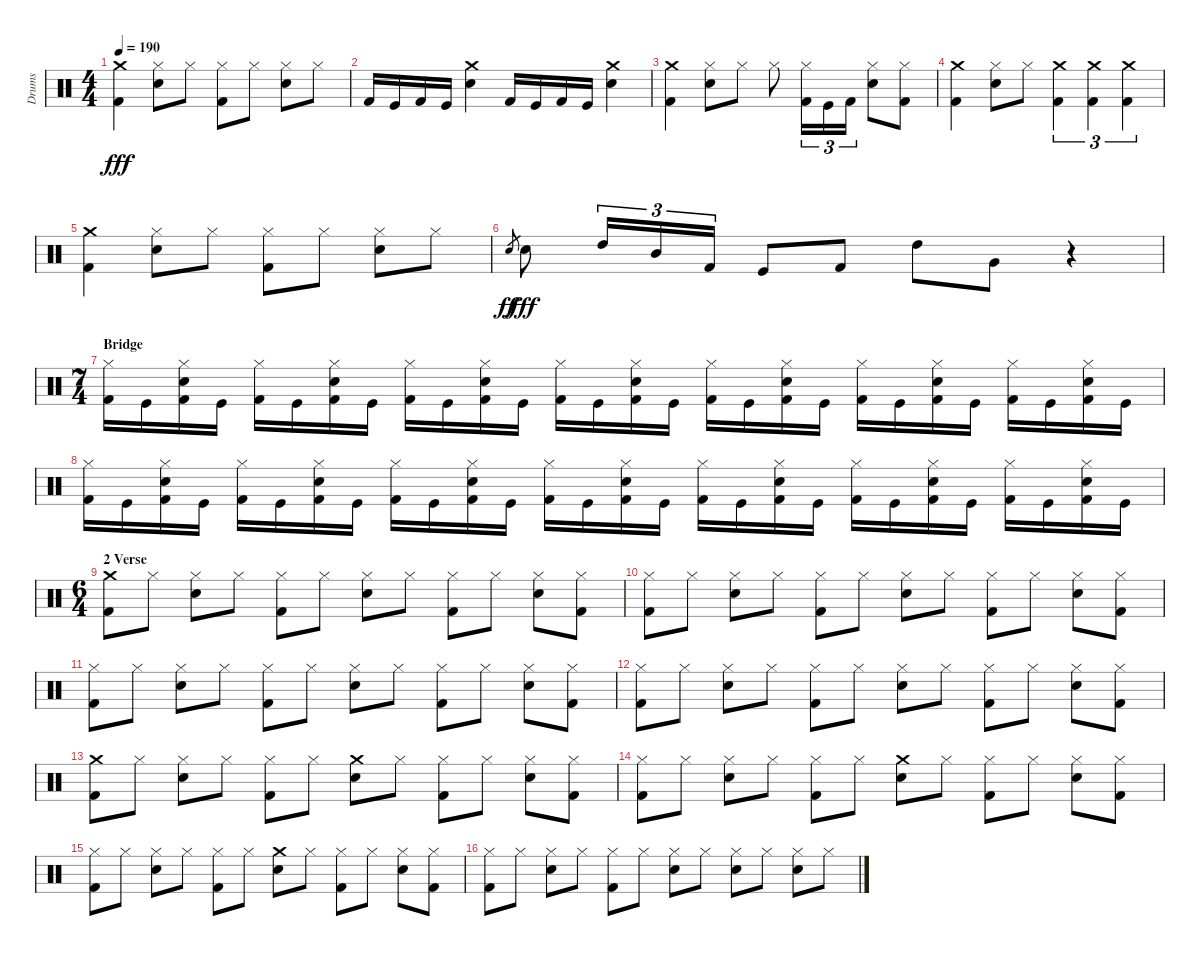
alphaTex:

\track ("Drums" "Drums") {instrument percussion}
\staff {score}
\articulation defaults
\ts (4 4)
\tempo 190
\clef neutral
\ks c
("Kick (hit) 2" "Crash medium (hit)").4{dy fff} ("Hi-Hat (closed)" "Snare (hit) 2").8 "Hi-Hat (closed)".8 ("Hi-Hat (closed)" "Kick (hit) 2").8 "Hi-Hat (closed)".8 ("Snare (hit) 2" "Hi-Hat (closed)").8 "Hi-Hat (closed)".8 |
"Kick (hit) 2".16 "Kick (hit)".16 "Kick (hit) 2".16 "Kick (hit)".16 ("Crash medium (hit)" "Snare (hit) 2").4 "Kick (hit) 2".16 "Kick (hit)".16 "Kick (hit) 2".16 "Kick (hit)".16 ("Snare (hit) 2" "Crash medium (hit)").4 |
("Kick (hit) 2" "Crash medium (hit)").4 ("Snare (hit) 2" "Hi-Hat (closed)").8 "Hi-Hat (closed)".8 "Hi-Hat (closed)".8 ("Kick (hit) 2" "Hi-Hat (closed)").16{tu (3 2)} "Kick (hit)".16{tu (3 2)} "Kick (hit) 2".16{tu (3 2)} ("Snare (hit) 2" "Hi-Hat (closed)").8 ("Kick (hit) 2" "Hi-Hat (closed)").8 |
("Kick (hit) 2" "Crash medium (hit)").4 ("Hi-Hat (closed)" "Snare (hit) 2").8 "Hi-Hat (closed)".8 ("Kick (hit) 2" "Crash medium (hit)").4{tu (3 2)} ("Kick (hit) 2" "Crash medium (hit)").4{tu (3 2)} ("Kick (hit) 2" "Crash medium (hit)").4{tu (3 2)} |
("Kick (hit) 2" "Crash medium (hit)").4 ("Hi-Hat (closed)" "Snare (hit) 2").8 "Hi-Hat (closed)".8 ("Hi-Hat (closed)" "Kick (hit) 2").8 "Hi-Hat (closed)".8 ("Snare (hit) 2" "Hi-Hat (closed)").8 "Hi-Hat (closed)".8 |
"Snare (hit)".8{gr dy ff} "Snare (hit) 2".8{dy fff} "High Tom (hit)".16{tu (3 2)} "Mid Tom (hit)".16{tu (3 2)} "Kick (hit) 2".16{tu (3 2)} "Kick (hit)".8 "Kick (hit) 2".8 "High Tom (hit)".8 "Very Low Tom (hit)".8 r.4 |
\ts (7 4)
\section ("" "Bridge")
("Hi-Hat (closed)" "Kick (hit) 2").16 "Kick (hit)".16 ("Snare (hit) 2" "Hi-Hat (closed)" "Kick (hit) 2").16 "Kick (hit)".16 ("Hi-Hat (closed)" "Kick (hit) 2").16 "Kick (hit)".16 ("Snare (hit) 2" "Hi-Hat (closed)" "Kick (hit) 2").16 "Kick (hit)".16 ("Hi-Hat (closed)" "Kick (hit) 2").16 "Kick (hit)".16 ("Snare (hit) 2" "Hi-Hat (closed)" "Kick (hit) 2").16 "Kick (hit)".16 ("Hi-Hat (closed)" "Kick (hit) 2").16 "Kick (hit)".16 ("Snare (hit) 2" "Hi-Hat (closed)" "Kick (hit) 2").16 "Kick (hit)".16 ("Hi-Hat (closed)" "Kick (hit) 2").16 "Kick (hit)".16 ("Snare (hit) 2" "Hi-Hat (closed)" "Kick (hit) 2").16 "Kick (hit)".16 ("Hi-Hat (closed)" "Kick (hit) 2").16 "Kick (hit)".16 ("Snare (hit) 2" "Hi-Hat (closed)" "Kick (hit) 2").16 "Kick (hit)".16 ("Hi-Hat (closed)" "Kick (hit) 2").16 "Kick (hit)".16 ("Snare (hit) 2" "Hi-Hat (closed)" "Kick (hit) 2").16 "Kick (hit)".16 |
("Hi-Hat (closed)" "Kick (hit) 2").16 "Kick (hit)".16 ("Snare (hit) 2" "Hi-Hat (closed)" "Kick (hit) 2").16 "Kick (hit)".16 ("Hi-Hat (closed)" "Kick (hit) 2").16 "Kick (hit)".16 ("Snare (hit) 2" "Hi-Hat (closed)" "Kick (hit) 2").16 "Kick (hit)".16 ("Hi-Hat (closed)" "Kick (hit) 2").16 "Kick (hit)".16 ("Snare (hit) 2" "Hi-Hat (closed)" "Kick (hit) 2").16 "Kick (hit)".16 ("Hi-Hat (closed)" "Kick (hit) 2").16 "Kick (hit)".16 ("Snare (hit) 2" "Hi-Hat (closed)" "Kick (hit) 2").16 "Kick (hit)".16 ("Hi-Hat (closed)" "Kick (hit) 2").16 "Kick (hit)".16 ("Snare (hit) 2" "Hi-Hat (closed)" "Kick (hit) 2").16 "Kick (hit)".16 ("Hi-Hat (closed)" "Kick (hit) 2").16 "Kick (hit)".16 ("Snare (hit) 2" "Hi-Hat (closed)" "Kick (hit) 2").16 "Kick (hit)".16 ("Hi-Hat (closed)" "Kick (hit) 2").16 "Kick (hit)".16 ("Snare (hit) 2" "Hi-Hat (closed)" "Kick (hit) 2").16 "Kick (hit)".16 |
\ts (6 4)
\section ("" "2 Verse")
("Kick (hit) 2" "Crash medium (hit)").8 "Hi-Hat (closed)".8 ("Snare (hit) 2" "Hi-Hat (closed)").8 "Hi-Hat (closed)".8 ("Kick (hit) 2" "Hi-Hat (closed)").8 "Hi-Hat (closed)".8 ("Snare (hit) 2" "Hi-Hat (closed)").8 "Hi-Hat (closed)".8 ("Kick (hit) 2" "Hi-Hat (closed)").8 "Hi-Hat (closed)".8 ("Snare (hit) 2" "Hi-Hat (closed)").8 ("Kick (hit) 2" "Hi-Hat (closed)").8 |
("Hi-Hat (closed)" "Kick (hit) 2").8 "Hi-Hat (closed)".8 ("Snare (hit) 2" "Hi-Hat (closed)").8 "Hi-Hat (closed)".8 ("Kick (hit) 2" "Hi-Hat (closed)").8 "Hi-Hat (closed)".8 ("Snare (hit) 2" "Hi-Hat (closed)").8 "Hi-Hat (closed)".8 ("Kick (hit) 2" "Hi-Hat (closed)").8 "Hi-Hat (closed)".8 ("Snare (hit) 2" "Hi-Hat (closed)").8 ("Kick (hit) 2" "Hi-Hat (closed)").8 |
("Hi-Hat (closed)" "Kick (hit) 2").8 "Hi-Hat (closed)".8 ("Snare (hit) 2" "Hi-Hat (closed)").8 "Hi-Hat (closed)".8 ("Kick (hit) 2" "Hi-Hat (closed)").8 "Hi-Hat (closed)".8 ("Snare (hit) 2" "Hi-Hat (closed)").8 "Hi-Hat (closed)".8 ("Kick (hit) 2" "Hi-Hat (closed)").8 "Hi-Hat (closed)".8 ("Snare (hit) 2" "Hi-Hat (closed)").8 ("Kick (hit) 2" "Hi-Hat (closed)").8 |
("Hi-Hat (closed)" "Kick (hit) 2").8 "Hi-Hat (closed)".8 ("Snare (hit) 2" "Hi-Hat (closed)").8 "Hi-Hat (closed)".8 ("Kick (hit) 2" "Hi-Hat (closed)").8 "Hi-Hat (closed)".8 ("Snare (hit) 2" "Hi-Hat (closed)").8 "Hi-Hat (closed)".8 ("Kick (hit) 2" "Hi-Hat (closed)").8 "Hi-Hat (closed)".8 ("Snare (hit) 2" "Hi-Hat (closed)").8 ("Kick (hit) 2" "Hi-Hat (closed)").8 |
("Kick (hit) 2" "Crash medium (hit)").8 "Hi-Hat (closed)".8 ("Snare (hit) 2" "Hi-Hat (closed)").8 "Hi-Hat (closed)".8 ("Kick (hit) 2" "Hi-Hat (closed)").8 "Hi-Hat (closed)".8 ("Crash medium (hit)" "Snare (hit) 2").8 "Hi-Hat (closed)".8 ("Kick (hit) 2" "Hi-Hat (closed)").8 "Hi-Hat (closed)".8 ("Snare (hit) 2" "Hi-Hat (closed)").8 ("Kick (hit) 2" "Hi-Hat (closed)").8 |
("Hi-Hat (closed)" "Kick (hit) 2").8 "Hi-Hat (closed)".8 ("Snare (hit) 2" "Hi-Hat (closed)").8 "Hi-Hat (closed)".8 ("Kick (hit) 2" "Hi-Hat (closed)").8 "Hi-Hat (closed)".8 ("Crash medium (hit)" "Snare (hit) 2").8 "Hi-Hat (closed)".8 ("Kick (hit) 2" "Hi-Hat (closed)").8 "Hi-Hat (closed)".8 ("Snare (hit) 2" "Hi-Hat (closed)").8 ("Kick (hit) 2" "Hi-Hat (closed)").8 |
("Hi-Hat (closed)" "Kick (hit) 2").8 "Hi-Hat (closed)".8 ("Snare (hit) 2" "Hi-Hat (closed)").8 "Hi-Hat (closed)".8 ("Kick (hit) 2" "Hi-Hat (closed)").8 "Hi-Hat (closed)".8 ("Crash medium (hit)" "Snare (hit) 2").8 "Hi-Hat (closed)".8 ("Kick (hit) 2" "Hi-Hat (closed)").8 "Hi-Hat (closed)".8 ("Snare (hit) 2" "Hi-Hat (closed)").8 ("Kick (hit) 2" "Hi-Hat (closed)").8 |
("Hi-Hat (closed)" "Kick (hit) 2").8 "Hi-Hat (closed)".8 ("Snare (hit) 2" "Hi-Hat (closed)").8 "Hi-Hat (closed)".8 ("Kick (hit) 2" "Hi-Hat (closed)").8 "Hi-Hat (closed)".8 ("Snare (hit) 2" "Hi-Hat (closed)").8 "Hi-Hat (closed)".8 ("Snare (hit) 2" "Hi-Hat (closed)").8 "Hi-Hat (closed)".8 ("Snare (hit) 2" "Hi-Hat (closed)").8 "Hi-Hat (closed)".8
